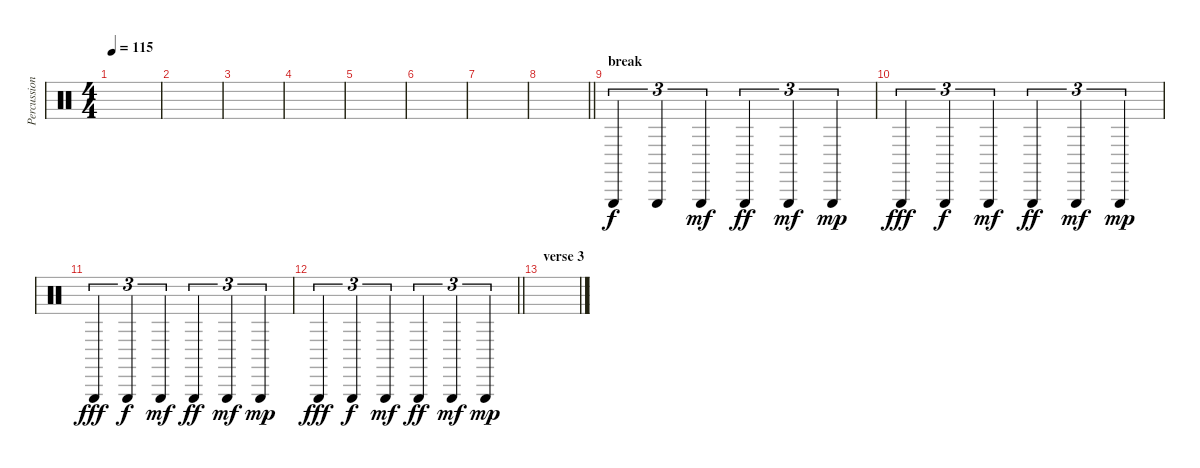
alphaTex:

\track ("Percussions" "Percussion") {instrument percussion}
\staff {score}
\articulation defaults
\ts (4 4)
\tempo 115
\clef neutral
\ks c
|
|
|
|
|
|
|
\barLineRight lightlight
|
\section ("" "break")
"Triangle (hit)".4{tu (3 2)} "Triangle (hit)".4{tu (3 2) dy f} "Triangle (hit)".4{tu (3 2) dy mf} "Triangle (hit)".4{tu (3 2) dy ff} "Triangle (hit)".4{tu (3 2) dy mf} "Triangle (hit)".4{tu (3 2) dy mp} |
"Triangle (hit)".4{tu (3 2) dy fff} "Triangle (hit)".4{tu (3 2) dy f} "Triangle (hit)".4{tu (3 2) dy mf} "Triangle (hit)".4{tu (3 2) dy ff} "Triangle (hit)".4{tu (3 2) dy mf} "Triangle (hit)".4{tu (3 2) dy mp} |
"Triangle (hit)".4{tu (3 2) dy fff} "Triangle (hit)".4{tu (3 2) dy f} "Triangle (hit)".4{tu (3 2) dy mf} "Triangle (hit)".4{tu (3 2) dy ff} "Triangle (hit)".4{tu (3 2) dy mf} "Triangle (hit)".4{tu (3 2) dy mp} |
\barLineRight lightlight "Triangle (hit)".4{tu (3 2) dy fff} "Triangle (hit)".4{tu (3 2) dy f} "Triangle (hit)".4{tu (3 2) dy mf} "Triangle (hit)".4{tu (3 2) dy ff} "Triangle (hit)".4{tu (3 2) dy mf} "Triangle (hit)".4{tu (3 2) dy mp}
|
\section ("" "verse 3")
